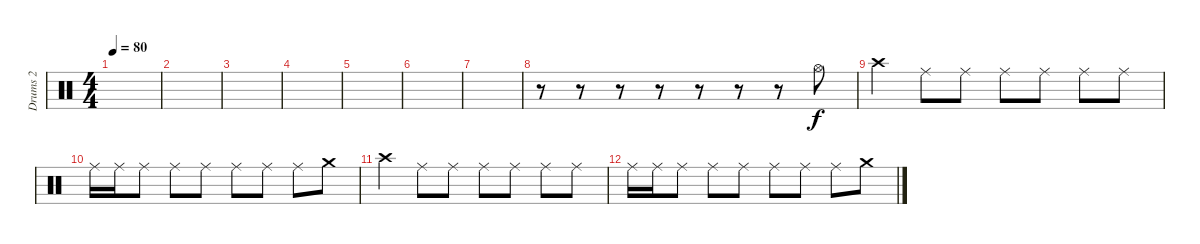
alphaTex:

\track ("Drums 2" "Drums 2") {instrument percussion}
\staff {score}
\articulation defaults
\ts (4 4)
\tempo 80
\clef neutral
\ks c
|
|
|
|
|
|
|
r.8 r.8 r.8 r.8 r.8 r.8 r.8 "Hi-Hat (open)".8 |
"Crash high (hit)".4 "Ride (middle)".8 "Ride (middle)".8 "Ride (middle)".8 "Ride (middle)".8 "Ride (middle)".8 "Ride (middle)".8 |
"Ride (middle)".16 "Ride (middle)".16 "Ride (middle)".8 "Ride (middle)".8 "Ride (middle)".8 "Ride (middle)".8 "Ride (middle)".8 "Ride (middle)".8 "Crash medium (hit)".8 |
"Crash high (hit)".4 "Ride (middle)".8 "Ride (middle)".8 "Ride (middle)".8 "Ride (middle)".8 "Ride (middle)".8 "Ride (middle)".8 |
"Ride (middle)".16 "Ride (middle)".16 "Ride (middle)".8 "Ride (middle)".8 "Ride (middle)".8 "Ride (middle)".8 "Ride (middle)".8 "Ride (middle)".8 "Crash medium (hit)".8
